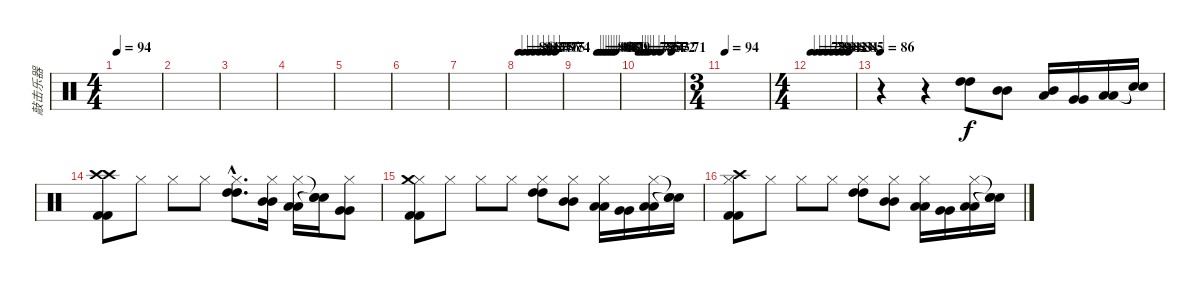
\track ("敲击乐器" "敲击乐器") {instrument percussion}
\staff {score}
\articulation defaults
\ts (4 4)
\tempo 94
\tempo 73
\tempo 94
\clef neutral
\ks c
|
|
|
|
|
|
|
\tempo 86
\tempo (84 0.125)
\tempo (82 0.25)
\tempo (80 0.375)
\tempo (78 0.5)
\tempo (76 0.625)
\tempo (75 0.75)
\tempo (74 0.875)
|
\tempo (86 0.5)
\tempo (85 0.5625)
\tempo (84 0.625)
\tempo (83 0.6875)
\tempo (82 0.75)
\tempo (81 0.8125)
\tempo (80 0.875)
\tempo (79 0.9375)
|
\tempo 78
\tempo (77 0.0625)
\tempo (76 0.125)
\tempo (75 0.1875)
\tempo (74 0.25)
\tempo (73 0.375)
\tempo (72 0.5)
\tempo (71 0.75)
|
\ts (3 4)
\tempo 94
|
\ts (4 4)
\tempo 78
\tempo (79 0.125)
\tempo (80 0.25)
\tempo (81 0.375)
\tempo (82 0.5)
\tempo (83 0.625)
\tempo (84 0.75)
\tempo (85 0.875)
|
\tempo 86
r.4 r.4 ("High Tom (hit)" "High Tom (hit)").8 ("Mid Tom (hit)" "Mid Tom (hit)").8 ("Mid Tom (hit)" "Low Tom (hit)").16 ("Very Low Tom (hit)" "Very Low Tom (hit)").16 ("Low Floor Tom (hit)" "Low Floor Tom (hit)").16 ("Snare (hit)"{t} "Snare (hit)"{t}).16 |
("Crash high (hit)" "Crash high (hit)" "Kick (hit) 2" "Kick (hit) 2").8 "Hi-Hat (closed)".8 "Hi-Hat (closed)".8 "Hi-Hat (closed)".8 ("Hi-Hat (closed)"{hac} "High Tom (hit)"{hac} "High Tom (hit)"{hac}).8{d} ("Hi-Hat (closed)" "Mid Tom (hit)" "Mid Tom (hit)").16 ("Hi-Hat (closed)" "Low Tom (hit)" "Low Tom (hit)").16 ("Snare (hit)"{t} "Snare (hit)"{t} "Snare (hit)"{t}).16 ("Hi-Hat (closed)" "Very Low Tom (hit)" "Very Low Tom (hit)").8 |
("Hi-Hat (closed)" "Crash medium (hit)" "Kick (hit) 2" "Kick (hit) 2").8 "Hi-Hat (closed)".8 "Hi-Hat (closed)".8 "Hi-Hat (closed)".8 ("Hi-Hat (closed)" "High Tom (hit)" "High Tom (hit)").8 ("Hi-Hat (closed)" "Mid Tom (hit)" "Mid Tom (hit)").8 ("Hi-Hat (closed)" "Low Tom (hit)" "Low Tom (hit)").16 ("Very Low Tom (hit)" "Very Low Tom (hit)").16 ("Hi-Hat (closed)" "Low Floor Tom (hit)" "Low Floor Tom (hit)").16 ("Snare (hit)"{t} "Snare (hit)"{t} "Snare (hit)"{t}).16 |
("Hi-Hat (closed)" "Crash high (hit)" "Kick (hit) 2" "Kick (hit) 2").8 "Hi-Hat (closed)".8 "Hi-Hat (closed)".8 "Hi-Hat (closed)".8 ("Hi-Hat (closed)" "High Tom (hit)" "High Tom (hit)").8 ("Hi-Hat (closed)" "Mid Tom (hit)" "Mid Tom (hit)").8 ("Hi-Hat (closed)" "Low Tom (hit)" "Low Tom (hit)").16 ("Very Low Tom (hit)" "Very Low Tom (hit)").16 ("Hi-Hat (closed)" "Low Floor Tom (hit)" "Low Floor Tom (hit)").16 ("Snare (hit)"{t} "Snare (hit)"{t} "Snare (hit)"{t}).16
